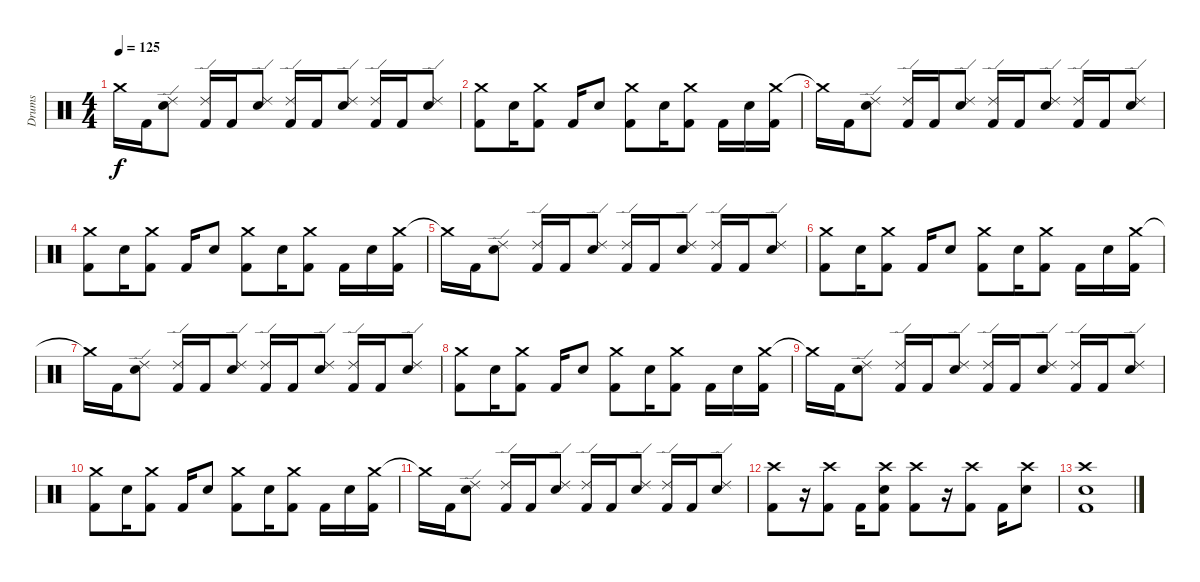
\track ("Drums" "Drums") {instrument percussion}
\staff {score}
\articulation defaults
\ts (4 4)
\tempo 125
\clef neutral
\ks c "Crash medium (hit)"{t}.16{dy f} "Kick (hit) 2".16
("Snare (hit) 2" "Ride (edge) 2").8 ("Ride (edge) 2" "Kick (hit) 2").16 "Kick (hit) 2".16 ("Snare (hit) 2" "Ride (edge) 2").8 ("Ride (edge) 2" "Kick (hit) 2").16 "Kick (hit) 2".16 ("Snare (hit) 2" "Ride (edge) 2").8 ("Ride (edge) 2" "Kick (hit) 2").16 "Kick (hit) 2".16 ("Snare (hit) 2" "Ride (edge) 2").8 |
("Crash medium (hit)" "Kick (hit) 2").8 "Snare (hit) 2".16 ("Crash medium (hit)" "Kick (hit) 2").8 "Kick (hit) 2".16 "Snare (hit) 2".8 ("Crash medium (hit)" "Kick (hit) 2").8 "Snare (hit) 2".16 ("Crash medium (hit)" "Kick (hit) 2").8 "Kick (hit) 2".16 "Snare (hit) 2".16 ("Crash medium (hit)" "Kick (hit) 2").16 |
"Crash medium (hit)"{t}.16 "Kick (hit) 2".16 ("Snare (hit) 2" "Ride (edge) 2").8 ("Ride (edge) 2" "Kick (hit) 2").16 "Kick (hit) 2".16 ("Snare (hit) 2" "Ride (edge) 2").8 ("Ride (edge) 2" "Kick (hit) 2").16 "Kick (hit) 2".16 ("Snare (hit) 2" "Ride (edge) 2").8 ("Ride (edge) 2" "Kick (hit) 2").16 "Kick (hit) 2".16 ("Snare (hit) 2" "Ride (edge) 2").8 |
("Crash medium (hit)" "Kick (hit) 2").8 "Snare (hit) 2".16 ("Crash medium (hit)" "Kick (hit) 2").8 "Kick (hit) 2".16 "Snare (hit) 2".8 ("Crash medium (hit)" "Kick (hit) 2").8 "Snare (hit) 2".16 ("Crash medium (hit)" "Kick (hit) 2").8 "Kick (hit) 2".16 "Snare (hit) 2".16 ("Crash medium (hit)" "Kick (hit) 2").16 |
"Crash medium (hit)"{t}.16 "Kick (hit) 2".16 ("Snare (hit) 2" "Ride (edge) 2").8 ("Ride (edge) 2" "Kick (hit) 2").16 "Kick (hit) 2".16 ("Snare (hit) 2" "Ride (edge) 2").8 ("Ride (edge) 2" "Kick (hit) 2").16 "Kick (hit) 2".16 ("Snare (hit) 2" "Ride (edge) 2").8 ("Ride (edge) 2" "Kick (hit) 2").16 "Kick (hit) 2".16 ("Snare (hit) 2" "Ride (edge) 2").8 |
("Crash medium (hit)" "Kick (hit) 2").8 "Snare (hit) 2".16 ("Crash medium (hit)" "Kick (hit) 2").8 "Kick (hit) 2".16 "Snare (hit) 2".8 ("Crash medium (hit)" "Kick (hit) 2").8 "Snare (hit) 2".16 ("Crash medium (hit)" "Kick (hit) 2").8 "Kick (hit) 2".16 "Snare (hit) 2".16 ("Crash medium (hit)" "Kick (hit) 2").16 |
"Crash medium (hit)"{t}.16 "Kick (hit) 2".16 ("Snare (hit) 2" "Ride (edge) 2").8 ("Ride (edge) 2" "Kick (hit) 2").16 "Kick (hit) 2".16 ("Snare (hit) 2" "Ride (edge) 2").8 ("Ride (edge) 2" "Kick (hit) 2").16 "Kick (hit) 2".16 ("Snare (hit) 2" "Ride (edge) 2").8 ("Ride (edge) 2" "Kick (hit) 2").16 "Kick (hit) 2".16 ("Snare (hit) 2" "Ride (edge) 2").8 |
("Crash medium (hit)" "Kick (hit) 2").8 "Snare (hit) 2".16 ("Crash medium (hit)" "Kick (hit) 2").8 "Kick (hit) 2".16 "Snare (hit) 2".8 ("Crash medium (hit)" "Kick (hit) 2").8 "Snare (hit) 2".16 ("Crash medium (hit)" "Kick (hit) 2").8 "Kick (hit) 2".16 "Snare (hit) 2".16 ("Crash medium (hit)" "Kick (hit) 2").16 |
"Crash medium (hit)"{t}.16 "Kick (hit) 2".16 ("Snare (hit) 2" "Ride (edge) 2").8 ("Ride (edge) 2" "Kick (hit) 2").16 "Kick (hit) 2".16 ("Snare (hit) 2" "Ride (edge) 2").8 ("Ride (edge) 2" "Kick (hit) 2").16 "Kick (hit) 2".16 ("Snare (hit) 2" "Ride (edge) 2").8 ("Ride (edge) 2" "Kick (hit) 2").16 "Kick (hit) 2".16 ("Snare (hit) 2" "Ride (edge) 2").8 |
("Crash medium (hit)" "Kick (hit) 2").8 "Snare (hit) 2".16 ("Crash medium (hit)" "Kick (hit) 2").8 "Kick (hit) 2".16 "Snare (hit) 2".8 ("Crash medium (hit)" "Kick (hit) 2").8 "Snare (hit) 2".16 ("Crash medium (hit)" "Kick (hit) 2").8 "Kick (hit) 2".16 "Snare (hit) 2".16 ("Crash medium (hit)" "Kick (hit) 2").16 |
"Crash medium (hit)"{t}.16 "Kick (hit) 2".16 ("Snare (hit) 2" "Ride (edge) 2").8 ("Ride (edge) 2" "Kick (hit) 2").16 "Kick (hit) 2".16 ("Snare (hit) 2" "Ride (edge) 2").8 ("Ride (edge) 2" "Kick (hit) 2").16 "Kick (hit) 2".16 ("Snare (hit) 2" "Ride (edge) 2").8 ("Ride (edge) 2" "Kick (hit) 2").16 "Kick (hit) 2".16 ("Snare (hit) 2" "Ride (edge) 2").8 |
("Crash high (hit)" "Kick (hit) 2").8 r.16 ("Crash high (hit)" "Kick (hit) 2").8 "Kick (hit) 2".16 ("Crash high (hit)" "Snare (hit) 2" "Kick (hit) 2").8 ("Crash high (hit)" "Kick (hit) 2").8 r.16 ("Crash high (hit)" "Kick (hit) 2").8 "Kick (hit) 2".16 ("Crash high (hit)" "Snare (hit) 2").8 |
("Crash high (hit)" "Snare (hit) 2" "Kick (hit) 2").1
